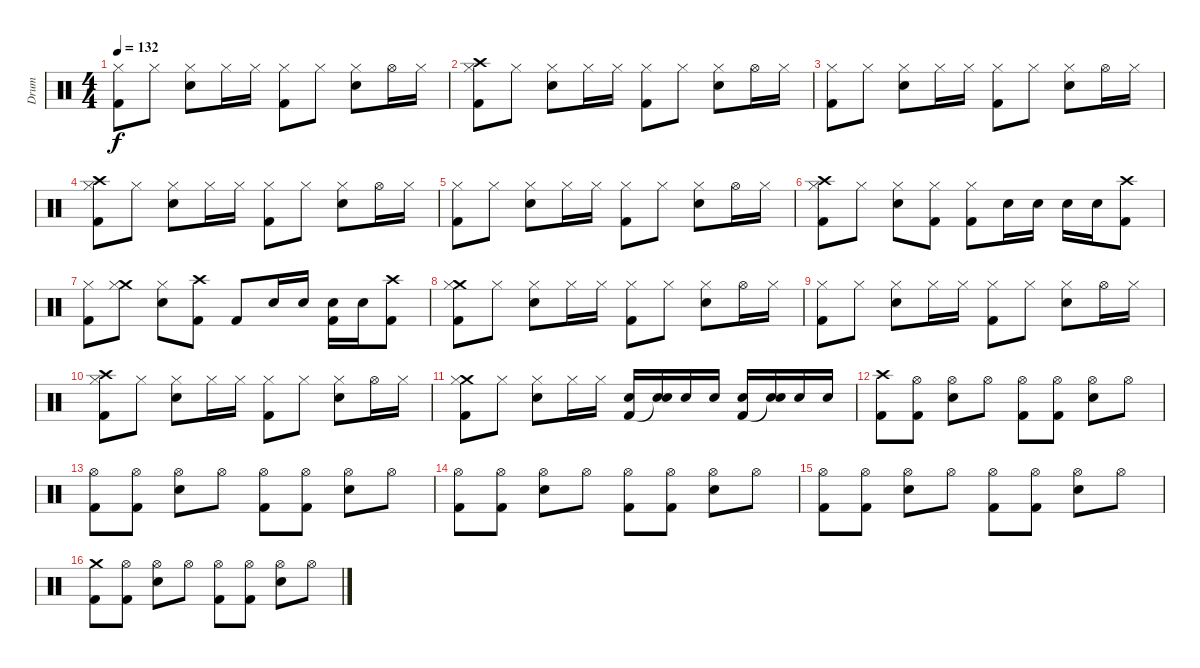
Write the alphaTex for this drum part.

\track ("Drum" "Drum") {instrument percussion}
\staff {score}
\articulation defaults
\ts (4 4)
\tempo 132
\clef neutral
\ks c
("Hi-Hat (closed)" "Kick (hit) 2").8{dy f} "Hi-Hat (closed)".8 ("Hi-Hat (closed)" "Snare (hit) 2").8 "Hi-Hat (closed)".16 "Hi-Hat (closed)".16 ("Hi-Hat (closed)" "Kick (hit) 2").8 "Hi-Hat (closed)".8 ("Hi-Hat (closed)" "Snare (hit) 2").8 "Hi-Hat (open)".16 "Hi-Hat (closed)".16 |
("Crash high (hit)" "Hi-Hat (closed)" "Kick (hit) 2").8 "Hi-Hat (closed)".8 ("Hi-Hat (closed)" "Snare (hit) 2").8 "Hi-Hat (closed)".16 "Hi-Hat (closed)".16 ("Hi-Hat (closed)" "Kick (hit) 2").8 "Hi-Hat (closed)".8 ("Hi-Hat (closed)" "Snare (hit) 2").8 "Hi-Hat (open)".16 "Hi-Hat (closed)".16 |
("Hi-Hat (closed)" "Kick (hit) 2").8 "Hi-Hat (closed)".8 ("Hi-Hat (closed)" "Snare (hit) 2").8 "Hi-Hat (closed)".16 "Hi-Hat (closed)".16 ("Hi-Hat (closed)" "Kick (hit) 2").8 "Hi-Hat (closed)".8 ("Hi-Hat (closed)" "Snare (hit) 2").8 "Hi-Hat (open)".16 "Hi-Hat (closed)".16 |
("Crash high (hit)" "Hi-Hat (closed)" "Kick (hit) 2").8 "Hi-Hat (closed)".8 ("Hi-Hat (closed)" "Snare (hit) 2").8 "Hi-Hat (closed)".16 "Hi-Hat (closed)".16 ("Hi-Hat (closed)" "Kick (hit) 2").8 "Hi-Hat (closed)".8 ("Hi-Hat (closed)" "Snare (hit) 2").8 "Hi-Hat (open)".16 "Hi-Hat (closed)".16 |
("Hi-Hat (closed)" "Kick (hit) 2").8 "Hi-Hat (closed)".8 ("Hi-Hat (closed)" "Snare (hit) 2").8 "Hi-Hat (closed)".16 "Hi-Hat (closed)".16 ("Hi-Hat (closed)" "Kick (hit) 2").8 "Hi-Hat (closed)".8 ("Hi-Hat (closed)" "Snare (hit) 2").8 "Hi-Hat (open)".16 "Hi-Hat (closed)".16 |
("Crash high (hit)" "Hi-Hat (closed)" "Kick (hit) 2").8 "Hi-Hat (closed)".8 ("Hi-Hat (closed)" "Snare (hit) 2").8 ("Hi-Hat (closed)" "Kick (hit) 2").8 ("Hi-Hat (closed)" "Kick (hit) 2").8 "Snare (hit) 2".16 "Snare (hit) 2".16 "Snare (hit) 2".16 "Snare (hit) 2".16 ("Crash high (hit)" "Kick (hit) 2").8 |
("Hi-Hat (closed)" "Kick (hit) 2").8 ("Crash medium (hit)" "Hi-Hat (closed)").8 ("Hi-Hat (closed)" "Snare (hit) 2").8 ("Crash high (hit)" "Kick (hit) 2").8 "Kick (hit) 2".8 "Snare (hit) 2".16 "Snare (hit) 2".16 ("Snare (hit) 2" "Kick (hit) 2").16 "Snare (hit) 2".16 ("Crash high (hit)" "Kick (hit) 2").8 |
("Crash medium (hit)" "Hi-Hat (closed)" "Kick (hit) 2").8 "Hi-Hat (closed)".8 ("Hi-Hat (closed)" "Snare (hit) 2").8 "Hi-Hat (closed)".16 "Hi-Hat (closed)".16 ("Hi-Hat (closed)" "Kick (hit) 2").8 "Hi-Hat (closed)".8 ("Hi-Hat (closed)" "Snare (hit) 2").8 "Hi-Hat (open)".16 "Hi-Hat (closed)".16 |
("Hi-Hat (closed)" "Kick (hit) 2").8 "Hi-Hat (closed)".8 ("Hi-Hat (closed)" "Snare (hit) 2").8 "Hi-Hat (closed)".16 "Hi-Hat (closed)".16 ("Hi-Hat (closed)" "Kick (hit) 2").8 "Hi-Hat (closed)".8 ("Hi-Hat (closed)" "Electric Snare (hit)").8 "Hi-Hat (open)".16 "Hi-Hat (closed)".16 |
("Crash high (hit)" "Hi-Hat (closed)" "Kick (hit) 2").8 "Hi-Hat (closed)".8 ("Hi-Hat (closed)" "Snare (hit) 2").8 "Hi-Hat (closed)".16 "Hi-Hat (closed)".16 ("Hi-Hat (closed)" "Kick (hit) 2").8 "Hi-Hat (closed)".8 ("Hi-Hat (closed)" "Snare (hit) 2").8 "Hi-Hat (open)".16 "Hi-Hat (closed)".16 |
("Crash medium (hit)" "Hi-Hat (closed)" "Kick (hit) 2").8 "Hi-Hat (closed)".8 ("Hi-Hat (closed)" "Snare (hit) 2").8 "Hi-Hat (closed)".16 "Hi-Hat (closed)".16 ("Snare (hit) 2" "Kick (hit) 2").16 ("Snare (hit) 2" "Snare (hit)"{t}).16 "Snare (hit) 2".16 "Snare (hit) 2".16 ("Snare (hit) 2" "Kick (hit) 2").16 ("Snare (hit) 2" "Snare (hit)"{t}).16 "Snare (hit) 2".16 "Snare (hit) 2".16 |
("Crash high (hit)" "Kick (hit) 2").8 ("Hi-Hat (open)" "Kick (hit) 2").8 ("Hi-Hat (open)" "Snare (hit) 2").8 "Hi-Hat (open)".8 ("Hi-Hat (open)" "Kick (hit) 2").8 ("Hi-Hat (open)" "Kick (hit) 2").8 ("Hi-Hat (open)" "Snare (hit) 2").8 "Hi-Hat (open)".8 |
("Hi-Hat (open)" "Kick (hit) 2").8 ("Hi-Hat (open)" "Kick (hit) 2").8 ("Hi-Hat (open)" "Snare (hit) 2").8 "Hi-Hat (open)".8 ("Hi-Hat (open)" "Kick (hit) 2").8 ("Hi-Hat (open)" "Kick (hit) 2").8 ("Hi-Hat (open)" "Snare (hit) 2").8 "Hi-Hat (open)".8 |
("Hi-Hat (open)" "Kick (hit) 2").8 ("Hi-Hat (open)" "Kick (hit) 2").8 ("Hi-Hat (open)" "Snare (hit) 2").8 "Hi-Hat (open)".8 ("Hi-Hat (open)" "Kick (hit) 2").8 ("Hi-Hat (open)" "Kick (hit) 2").8 ("Hi-Hat (open)" "Snare (hit) 2").8 "Hi-Hat (open)".8 |
("Hi-Hat (open)" "Kick (hit) 2").8 ("Hi-Hat (open)" "Kick (hit) 2").8 ("Hi-Hat (open)" "Snare (hit) 2").8 "Hi-Hat (open)".8 ("Hi-Hat (open)" "Kick (hit) 2").8 ("Hi-Hat (open)" "Kick (hit) 2").8 ("Hi-Hat (open)" "Snare (hit) 2").8 "Hi-Hat (open)".8 |
("Crash medium (hit)" "Kick (hit) 2").8 ("Hi-Hat (open)" "Kick (hit) 2").8 ("Hi-Hat (open)" "Snare (hit) 2").8 "Hi-Hat (open)".8 ("Hi-Hat (open)" "Kick (hit) 2").8 ("Hi-Hat (open)" "Kick (hit) 2").8 ("Hi-Hat (open)" "Snare (hit) 2").8 "Hi-Hat (open)".8
